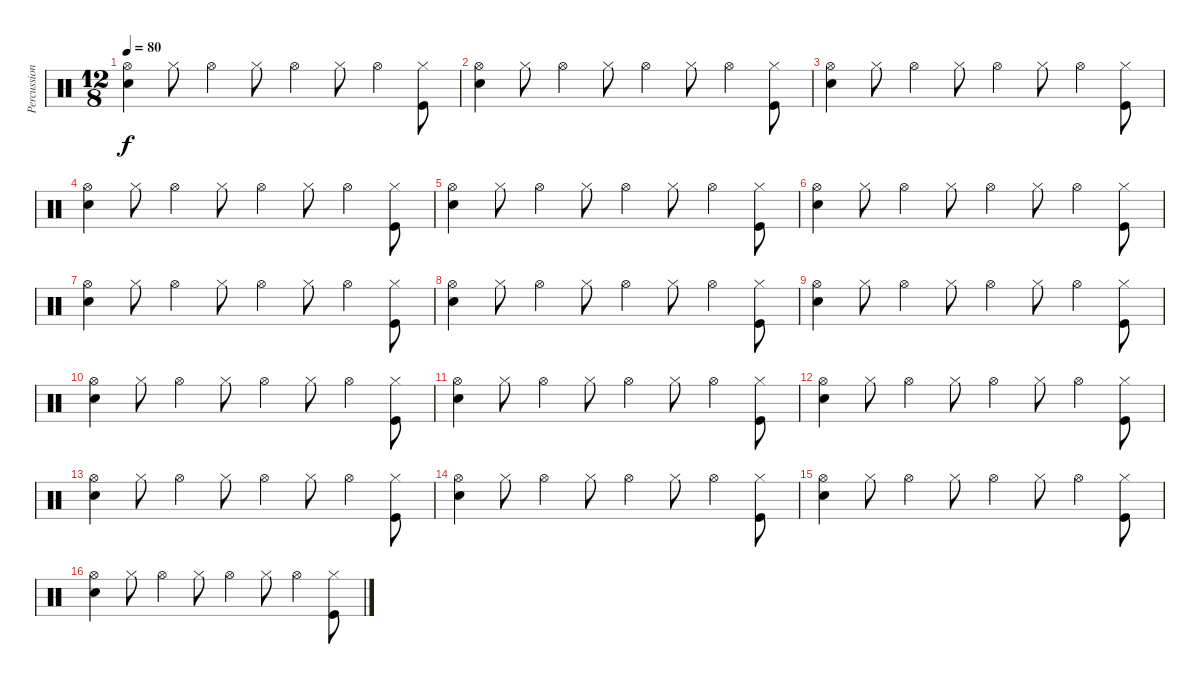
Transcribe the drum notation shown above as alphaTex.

\track ("Percussion" "Percussion") {instrument percussion}
\staff {score}
\articulation defaults
\ts (12 8)
\tempo 80
\clef neutral
\ks c
("Hi-Hat (open)" "Snare (hit) 2").4{dy f} "Hi-Hat (closed)".8 "Hi-Hat (open)".4 "Hi-Hat (closed)".8 "Hi-Hat (open)".4 "Hi-Hat (closed)".8 "Hi-Hat (open)".4 ("Hi-Hat (closed)" "Kick (hit)").8 |
("Hi-Hat (open)" "Snare (hit) 2").4 "Hi-Hat (closed)".8 "Hi-Hat (open)".4 "Hi-Hat (closed)".8 "Hi-Hat (open)".4 "Hi-Hat (closed)".8 "Hi-Hat (open)".4 ("Hi-Hat (closed)" "Kick (hit)").8 |
("Hi-Hat (open)" "Snare (hit) 2").4 "Hi-Hat (closed)".8 "Hi-Hat (open)".4 "Hi-Hat (closed)".8 "Hi-Hat (open)".4 "Hi-Hat (closed)".8 "Hi-Hat (open)".4 ("Hi-Hat (closed)" "Kick (hit)").8 |
("Hi-Hat (open)" "Snare (hit) 2").4 "Hi-Hat (closed)".8 "Hi-Hat (open)".4 "Hi-Hat (closed)".8 "Hi-Hat (open)".4 "Hi-Hat (closed)".8 "Hi-Hat (open)".4 ("Hi-Hat (closed)" "Kick (hit)").8 |
("Hi-Hat (open)" "Snare (hit) 2").4 "Hi-Hat (closed)".8 "Hi-Hat (open)".4 "Hi-Hat (closed)".8 "Hi-Hat (open)".4 "Hi-Hat (closed)".8 "Hi-Hat (open)".4 ("Hi-Hat (closed)" "Kick (hit)").8 |
("Hi-Hat (open)" "Snare (hit) 2").4 "Hi-Hat (closed)".8 "Hi-Hat (open)".4 "Hi-Hat (closed)".8 "Hi-Hat (open)".4 "Hi-Hat (closed)".8 "Hi-Hat (open)".4 ("Hi-Hat (closed)" "Kick (hit)").8 |
("Hi-Hat (open)" "Snare (hit) 2").4 "Hi-Hat (closed)".8 "Hi-Hat (open)".4 "Hi-Hat (closed)".8 "Hi-Hat (open)".4 "Hi-Hat (closed)".8 "Hi-Hat (open)".4 ("Hi-Hat (closed)" "Kick (hit)").8 |
("Hi-Hat (open)" "Snare (hit) 2").4 "Hi-Hat (closed)".8 "Hi-Hat (open)".4 "Hi-Hat (closed)".8 "Hi-Hat (open)".4 "Hi-Hat (closed)".8 "Hi-Hat (open)".4 ("Hi-Hat (closed)" "Kick (hit)").8 |
("Hi-Hat (open)" "Snare (hit) 2").4 "Hi-Hat (closed)".8 "Hi-Hat (open)".4 "Hi-Hat (closed)".8 "Hi-Hat (open)".4 "Hi-Hat (closed)".8 "Hi-Hat (open)".4 ("Hi-Hat (closed)" "Kick (hit)").8 |
("Hi-Hat (open)" "Snare (hit) 2").4 "Hi-Hat (closed)".8 "Hi-Hat (open)".4 "Hi-Hat (closed)".8 "Hi-Hat (open)".4 "Hi-Hat (closed)".8 "Hi-Hat (open)".4 ("Hi-Hat (closed)" "Kick (hit)").8 |
("Hi-Hat (open)" "Snare (hit) 2").4 "Hi-Hat (closed)".8 "Hi-Hat (open)".4 "Hi-Hat (closed)".8 "Hi-Hat (open)".4 "Hi-Hat (closed)".8 "Hi-Hat (open)".4 ("Hi-Hat (closed)" "Kick (hit)").8 |
("Hi-Hat (open)" "Snare (hit) 2").4 "Hi-Hat (closed)".8 "Hi-Hat (open)".4 "Hi-Hat (closed)".8 "Hi-Hat (open)".4 "Hi-Hat (closed)".8 "Hi-Hat (open)".4 ("Hi-Hat (closed)" "Kick (hit)").8 |
("Hi-Hat (open)" "Snare (hit) 2").4 "Hi-Hat (closed)".8 "Hi-Hat (open)".4 "Hi-Hat (closed)".8 "Hi-Hat (open)".4 "Hi-Hat (closed)".8 "Hi-Hat (open)".4 ("Hi-Hat (closed)" "Kick (hit)").8 |
("Hi-Hat (open)" "Snare (hit) 2").4 "Hi-Hat (closed)".8 "Hi-Hat (open)".4 "Hi-Hat (closed)".8 "Hi-Hat (open)".4 "Hi-Hat (closed)".8 "Hi-Hat (open)".4 ("Hi-Hat (closed)" "Kick (hit)").8 |
("Hi-Hat (open)" "Snare (hit) 2").4 "Hi-Hat (closed)".8 "Hi-Hat (open)".4 "Hi-Hat (closed)".8 "Hi-Hat (open)".4 "Hi-Hat (closed)".8 "Hi-Hat (open)".4 ("Hi-Hat (closed)" "Kick (hit)").8 |
("Hi-Hat (open)" "Snare (hit) 2").4 "Hi-Hat (closed)".8 "Hi-Hat (open)".4 "Hi-Hat (closed)".8 "Hi-Hat (open)".4 "Hi-Hat (closed)".8 "Hi-Hat (open)".4 ("Hi-Hat (closed)" "Kick (hit)").8
